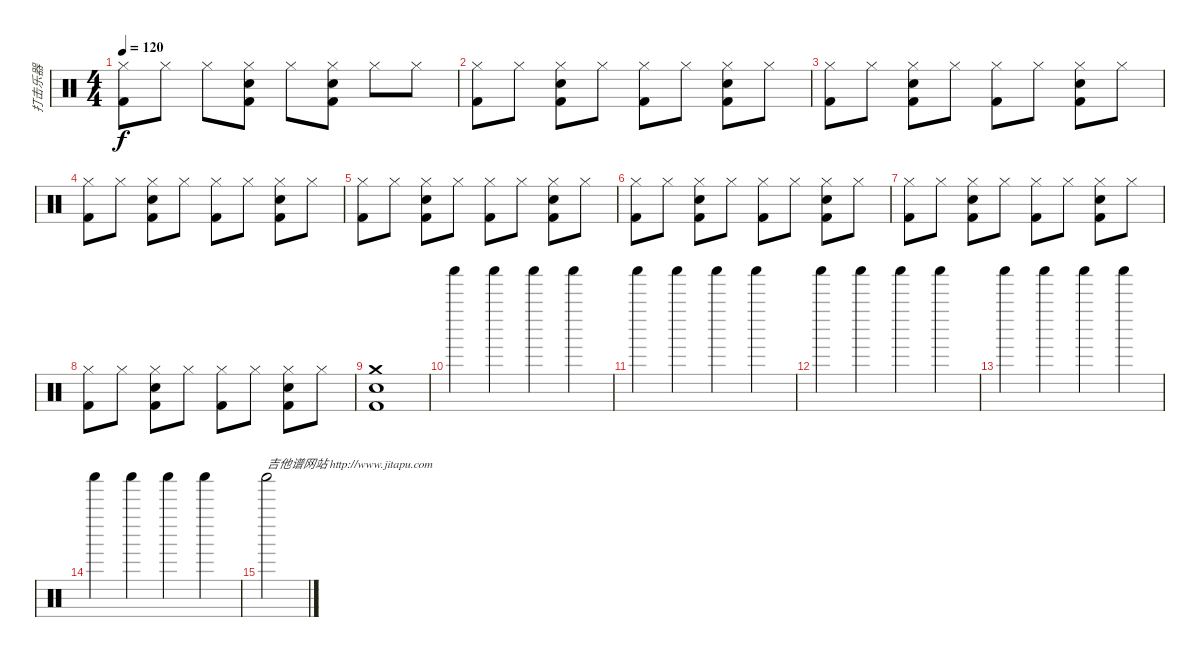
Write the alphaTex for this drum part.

\track ("打击乐器" "打击乐器") {instrument percussion}
\staff {score}
\articulation defaults
\ts (4 4)
\tempo 120
\clef neutral
\ks c
("Hi-Hat (closed)" "Kick (hit) 2").8{dy f} "Hi-Hat (closed)".8 "Hi-Hat (closed)".8 ("Hi-Hat (closed)" "Snare (hit) 2" "Kick (hit) 2").8 "Hi-Hat (closed)".8 ("Hi-Hat (closed)" "Snare (hit) 2" "Kick (hit) 2").8 "Hi-Hat (closed)".8 "Hi-Hat (closed)".8 |
("Hi-Hat (closed)" "Kick (hit) 2").8 "Hi-Hat (closed)".8 ("Hi-Hat (closed)" "Snare (hit) 2" "Kick (hit) 2").8 "Hi-Hat (closed)".8 ("Hi-Hat (closed)" "Kick (hit) 2").8 "Hi-Hat (closed)".8 ("Hi-Hat (closed)" "Snare (hit) 2" "Kick (hit) 2").8 "Hi-Hat (closed)".8 |
("Hi-Hat (closed)" "Kick (hit) 2").8 "Hi-Hat (closed)".8 ("Hi-Hat (closed)" "Snare (hit) 2" "Kick (hit) 2").8 "Hi-Hat (closed)".8 ("Hi-Hat (closed)" "Kick (hit) 2").8 "Hi-Hat (closed)".8 ("Hi-Hat (closed)" "Snare (hit) 2" "Kick (hit) 2").8 "Hi-Hat (closed)".8 |
("Hi-Hat (closed)" "Kick (hit) 2").8 "Hi-Hat (closed)".8 ("Hi-Hat (closed)" "Snare (hit) 2" "Kick (hit) 2").8 "Hi-Hat (closed)".8 ("Hi-Hat (closed)" "Kick (hit) 2").8 "Hi-Hat (closed)".8 ("Hi-Hat (closed)" "Snare (hit) 2" "Kick (hit) 2").8 "Hi-Hat (closed)".8 |
("Hi-Hat (closed)" "Kick (hit) 2").8 "Hi-Hat (closed)".8 ("Hi-Hat (closed)" "Snare (hit) 2" "Kick (hit) 2").8 "Hi-Hat (closed)".8 ("Hi-Hat (closed)" "Kick (hit) 2").8 "Hi-Hat (closed)".8 ("Hi-Hat (closed)" "Snare (hit) 2" "Kick (hit) 2").8 "Hi-Hat (closed)".8 |
("Hi-Hat (closed)" "Kick (hit) 2").8 "Hi-Hat (closed)".8 ("Hi-Hat (closed)" "Snare (hit) 2" "Kick (hit) 2").8 "Hi-Hat (closed)".8 ("Hi-Hat (closed)" "Kick (hit) 2").8 "Hi-Hat (closed)".8 ("Hi-Hat (closed)" "Snare (hit) 2" "Kick (hit) 2").8 "Hi-Hat (closed)".8 |
("Hi-Hat (closed)" "Kick (hit) 2").8 "Hi-Hat (closed)".8 ("Hi-Hat (closed)" "Snare (hit) 2" "Kick (hit) 2").8 "Hi-Hat (closed)".8 ("Hi-Hat (closed)" "Kick (hit) 2").8 "Hi-Hat (closed)".8 ("Hi-Hat (closed)" "Snare (hit) 2" "Kick (hit) 2").8 "Hi-Hat (closed)".8 |
("Hi-Hat (closed)" "Kick (hit) 2").8 "Hi-Hat (closed)".8 ("Hi-Hat (closed)" "Snare (hit) 2" "Kick (hit) 2").8 "Hi-Hat (closed)".8 ("Hi-Hat (closed)" "Kick (hit) 2").8 "Hi-Hat (closed)".8 ("Hi-Hat (closed)" "Snare (hit) 2" "Kick (hit) 2").8 "Hi-Hat (closed)".8 |
("Snare (hit) 2" "Kick (hit) 2" "Crash medium (hit)").1 |
"Shaker (hit)".4 "Shaker (hit)".4 "Shaker (hit)".4 "Shaker (hit)".4 |
"Shaker (hit)".4 "Shaker (hit)".4 "Shaker (hit)".4 "Shaker (hit)".4 |
"Shaker (hit)".4 "Shaker (hit)".4 "Shaker (hit)".4 "Shaker (hit)".4 |
"Shaker (hit)".4 "Shaker (hit)".4 "Shaker (hit)".4 "Shaker (hit)".4 |
"Shaker (hit)".4 "Shaker (hit)".4 "Shaker (hit)".4 "Shaker (hit)".4 |
"Shaker (hit)".2{txt "吉他谱网站 http://www.jitapu.com"}
